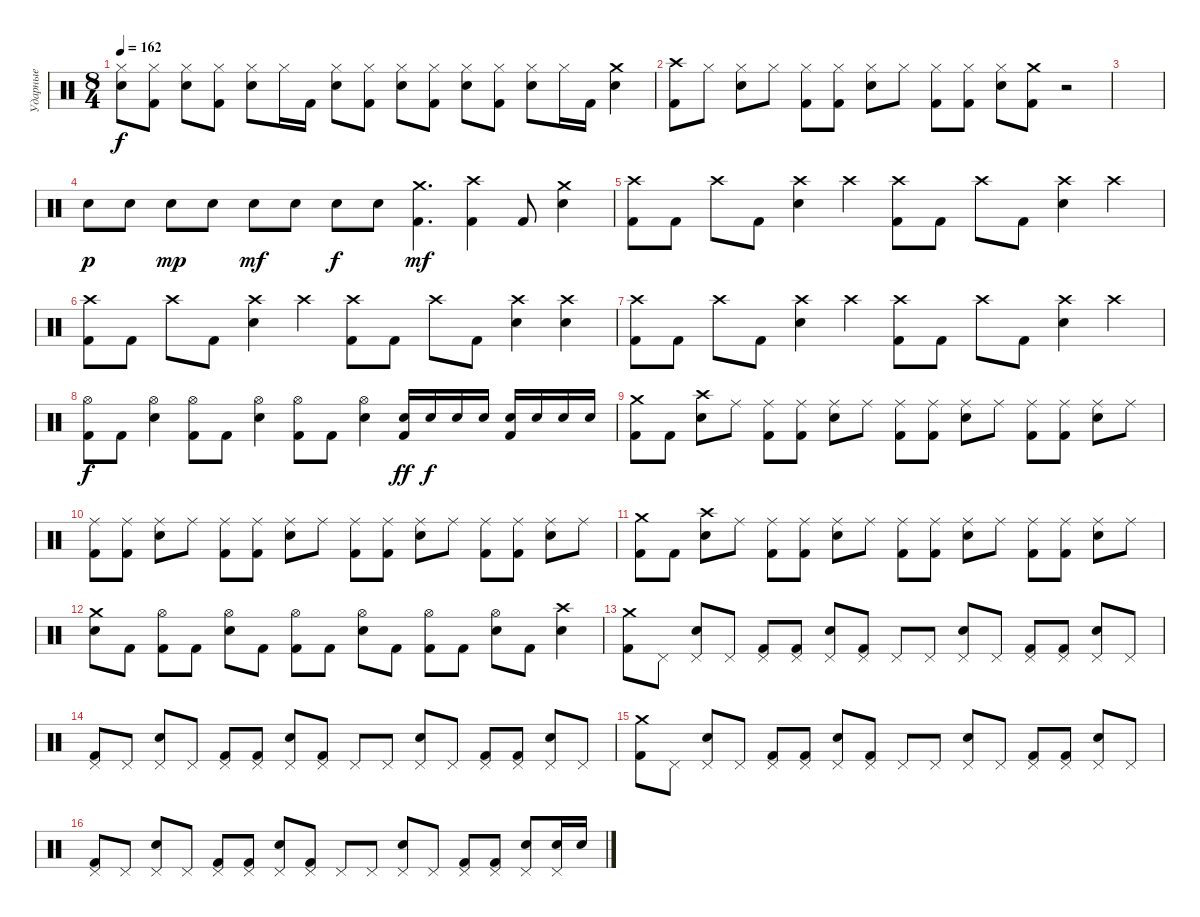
\track ("Ударные" "Ударные") {instrument percussion}
\staff {score}
\articulation defaults
\ts (8 4)
\tempo 162
\clef neutral
\ks c
("Hi-Hat (closed)" "Snare (hit) 2").8{dy f} ("Hi-Hat (closed)" "Kick (hit) 2").8 ("Hi-Hat (closed)" "Snare (hit) 2").8 ("Hi-Hat (closed)" "Kick (hit) 2").8 ("Hi-Hat (closed)" "Snare (hit) 2").8 "Hi-Hat (closed)".16 "Kick (hit) 2".16 ("Hi-Hat (closed)" "Snare (hit) 2").8 ("Hi-Hat (closed)" "Kick (hit) 2").8 ("Hi-Hat (closed)" "Snare (hit) 2").8 ("Hi-Hat (closed)" "Kick (hit) 2").8 ("Hi-Hat (closed)" "Snare (hit) 2").8 ("Hi-Hat (closed)" "Kick (hit) 2").8 ("Hi-Hat (closed)" "Snare (hit) 2").8 "Hi-Hat (closed)".16 "Kick (hit) 2".16 ("Crash medium (hit)" "Snare (hit) 2").4 |
("Crash high (hit)" "Kick (hit) 2").8 "Hi-Hat (closed)".8 ("Hi-Hat (closed)" "Snare (hit) 2").8 "Hi-Hat (closed)".8 ("Hi-Hat (closed)" "Kick (hit) 2").8 ("Hi-Hat (closed)" "Kick (hit) 2").8 ("Hi-Hat (closed)" "Snare (hit) 2").8 "Hi-Hat (closed)".8 ("Hi-Hat (closed)" "Kick (hit) 2").8 ("Hi-Hat (closed)" "Kick (hit) 2").8 ("Hi-Hat (closed)" "Snare (hit) 2").8 ("Crash medium (hit)" "Kick (hit) 2").8 r.2 |
|
"Snare (hit) 2".8{dy p} "Snare (hit) 2".8 "Snare (hit) 2".8{dy mp} "Snare (hit) 2".8 "Snare (hit) 2".8{dy mf} "Snare (hit) 2".8 "Snare (hit) 2".8{dy f} "Snare (hit) 2".8 ("Crash medium (hit)" "Kick (hit) 2").4{d dy mf} ("Crash high (hit)" "Kick (hit) 2").4 "Kick (hit) 2".8 ("Crash medium (hit)" "Snare (hit) 2").4 |
("Crash high (hit)" "Kick (hit) 2").8 "Kick (hit) 2".8 "Crash high (hit)".8 "Kick (hit) 2".8 ("Crash high (hit)" "Snare (hit) 2").4 "Crash high (hit)".4 ("Crash high (hit)" "Kick (hit) 2").8 "Kick (hit) 2".8 "Crash high (hit)".8 "Kick (hit) 2".8 ("Crash high (hit)" "Snare (hit) 2").4 "Crash high (hit)".4 |
("Crash high (hit)" "Kick (hit) 2").8 "Kick (hit) 2".8 "Crash high (hit)".8 "Kick (hit) 2".8 ("Crash high (hit)" "Snare (hit) 2").4 "Crash high (hit)".4 ("Crash high (hit)" "Kick (hit) 2").8 "Kick (hit) 2".8 "Crash high (hit)".8 "Kick (hit) 2".8 ("Crash high (hit)" "Snare (hit) 2").4 ("Crash high (hit)" "Snare (hit) 2").4 |
("Crash high (hit)" "Kick (hit) 2").8 "Kick (hit) 2".8 "Crash high (hit)".8 "Kick (hit) 2".8 ("Crash high (hit)" "Snare (hit) 2").4 "Crash high (hit)".4 ("Crash high (hit)" "Kick (hit) 2").8 "Kick (hit) 2".8 "Crash high (hit)".8 "Kick (hit) 2".8 ("Crash high (hit)" "Snare (hit) 2").4 "Crash high (hit)".4 |
("Hi-Hat (open)" "Kick (hit) 2").8{dy f} "Kick (hit) 2".8 ("Hi-Hat (open)" "Snare (hit) 2").4 ("Hi-Hat (open)" "Kick (hit) 2").8 "Kick (hit) 2".8 ("Hi-Hat (open)" "Snare (hit) 2").4 ("Hi-Hat (open)" "Kick (hit) 2").8 "Kick (hit) 2".8 ("Hi-Hat (open)" "Snare (hit) 2").4 ("Snare (hit) 2" "Kick (hit) 2").16{dy ff} "Snare (hit) 2".16{dy f} "Snare (hit) 2".16 "Snare (hit) 2".16 ("Snare (hit) 2" "Kick (hit) 2").16 "Snare (hit) 2".16 "Snare (hit) 2".16 "Snare (hit) 2".16 |
("Crash medium (hit)" "Kick (hit) 2").8 "Kick (hit) 2".8 ("Crash high (hit)" "Snare (hit) 2").8 "Ride (middle)".8 ("Ride (middle)" "Kick (hit) 2").8 ("Ride (middle)" "Kick (hit) 2").8 ("Ride (middle)" "Snare (hit) 2").8 "Ride (middle)".8 ("Ride (middle)" "Kick (hit) 2").8 ("Ride (middle)" "Kick (hit) 2").8 ("Ride (middle)" "Snare (hit) 2").8 "Ride (middle)".8 ("Ride (middle)" "Kick (hit) 2").8 ("Ride (middle)" "Kick (hit) 2").8 ("Ride (middle)" "Snare (hit) 2").8 "Ride (middle)".8 |
("Ride (middle)" "Kick (hit) 2").8 ("Ride (middle)" "Kick (hit) 2").8 ("Ride (middle)" "Snare (hit) 2").8 "Ride (middle)".8 ("Ride (middle)" "Kick (hit) 2").8 ("Ride (middle)" "Kick (hit) 2").8 ("Ride (middle)" "Snare (hit) 2").8 "Ride (middle)".8 ("Ride (middle)" "Kick (hit) 2").8 ("Ride (middle)" "Kick (hit) 2").8 ("Ride (middle)" "Snare (hit) 2").8 "Ride (middle)".8 ("Ride (middle)" "Kick (hit) 2").8 ("Ride (middle)" "Kick (hit) 2").8 ("Ride (middle)" "Snare (hit) 2").8 "Ride (middle)".8 |
("Crash medium (hit)" "Kick (hit) 2").8 "Kick (hit) 2".8 ("Crash high (hit)" "Snare (hit) 2").8 "Ride (middle)".8 ("Ride (middle)" "Kick (hit) 2").8 ("Ride (middle)" "Kick (hit) 2").8 ("Ride (middle)" "Snare (hit) 2").8 "Ride (middle)".8 ("Ride (middle)" "Kick (hit) 2").8 ("Ride (middle)" "Kick (hit) 2").8 ("Ride (middle)" "Snare (hit) 2").8 "Ride (middle)".8 ("Ride (middle)" "Kick (hit) 2").8 ("Ride (middle)" "Kick (hit) 2").8 ("Ride (middle)" "Snare (hit) 2").8 "Ride (middle)".8 |
("Crash medium (hit)" "Snare (hit) 2").8 "Kick (hit) 2".8 ("Hi-Hat (open)" "Kick (hit) 2").8 "Kick (hit) 2".8 ("Hi-Hat (open)" "Snare (hit) 2").8 "Kick (hit) 2".8 ("Hi-Hat (open)" "Kick (hit) 2").8 "Kick (hit) 2".8 ("Hi-Hat (open)" "Snare (hit) 2").8 "Kick (hit) 2".8 ("Hi-Hat (open)" "Kick (hit) 2").8 "Kick (hit) 2".8 ("Hi-Hat (open)" "Snare (hit) 2").8 "Kick (hit) 2".8 ("Crash high (hit)" "Snare (hit) 2").4 |
("Crash medium (hit)" "Kick (hit) 2").8 "Pedal Hi-Hat (hit)".8 ("Pedal Hi-Hat (hit)" "Snare (hit) 2").8 "Pedal Hi-Hat (hit)".8 ("Pedal Hi-Hat (hit)" "Kick (hit) 2").8 ("Pedal Hi-Hat (hit)" "Kick (hit) 2").8 ("Pedal Hi-Hat (hit)" "Snare (hit) 2").8 ("Pedal Hi-Hat (hit)" "Kick (hit) 2").8 "Pedal Hi-Hat (hit)".8 "Pedal Hi-Hat (hit)".8 ("Pedal Hi-Hat (hit)" "Snare (hit) 2").8 "Pedal Hi-Hat (hit)".8 ("Pedal Hi-Hat (hit)" "Kick (hit) 2").8 ("Pedal Hi-Hat (hit)" "Kick (hit) 2").8 ("Pedal Hi-Hat (hit)" "Snare (hit) 2").8 "Pedal Hi-Hat (hit)".8 |
("Pedal Hi-Hat (hit)" "Kick (hit) 2").8 "Pedal Hi-Hat (hit)".8 ("Pedal Hi-Hat (hit)" "Snare (hit) 2").8 "Pedal Hi-Hat (hit)".8 ("Pedal Hi-Hat (hit)" "Kick (hit) 2").8 ("Pedal Hi-Hat (hit)" "Kick (hit) 2").8 ("Pedal Hi-Hat (hit)" "Snare (hit) 2").8 ("Pedal Hi-Hat (hit)" "Kick (hit) 2").8 "Pedal Hi-Hat (hit)".8 "Pedal Hi-Hat (hit)".8 ("Pedal Hi-Hat (hit)" "Snare (hit) 2").8 "Pedal Hi-Hat (hit)".8 ("Pedal Hi-Hat (hit)" "Kick (hit) 2").8 ("Pedal Hi-Hat (hit)" "Kick (hit) 2").8 ("Pedal Hi-Hat (hit)" "Snare (hit) 2").8 "Pedal Hi-Hat (hit)".8 |
("Crash medium (hit)" "Kick (hit) 2").8 "Pedal Hi-Hat (hit)".8 ("Pedal Hi-Hat (hit)" "Snare (hit) 2").8 "Pedal Hi-Hat (hit)".8 ("Pedal Hi-Hat (hit)" "Kick (hit) 2").8 ("Pedal Hi-Hat (hit)" "Kick (hit) 2").8 ("Pedal Hi-Hat (hit)" "Snare (hit) 2").8 ("Pedal Hi-Hat (hit)" "Kick (hit) 2").8 "Pedal Hi-Hat (hit)".8 "Pedal Hi-Hat (hit)".8 ("Pedal Hi-Hat (hit)" "Snare (hit) 2").8 "Pedal Hi-Hat (hit)".8 ("Pedal Hi-Hat (hit)" "Kick (hit) 2").8 ("Pedal Hi-Hat (hit)" "Kick (hit) 2").8 ("Pedal Hi-Hat (hit)" "Snare (hit) 2").8 "Pedal Hi-Hat (hit)".8 |
("Pedal Hi-Hat (hit)" "Kick (hit) 2").8 "Pedal Hi-Hat (hit)".8 ("Pedal Hi-Hat (hit)" "Snare (hit) 2").8 "Pedal Hi-Hat (hit)".8 ("Pedal Hi-Hat (hit)" "Kick (hit) 2").8 ("Pedal Hi-Hat (hit)" "Kick (hit) 2").8 ("Pedal Hi-Hat (hit)" "Snare (hit) 2").8 ("Pedal Hi-Hat (hit)" "Kick (hit) 2").8 "Pedal Hi-Hat (hit)".8 "Pedal Hi-Hat (hit)".8 ("Pedal Hi-Hat (hit)" "Snare (hit) 2").8 "Pedal Hi-Hat (hit)".8 ("Pedal Hi-Hat (hit)" "Kick (hit) 2").8 ("Pedal Hi-Hat (hit)" "Kick (hit) 2").8 ("Pedal Hi-Hat (hit)" "Snare (hit) 2").8 ("Pedal Hi-Hat (hit)" "Snare (hit) 2").16 "Snare (hit) 2".16
